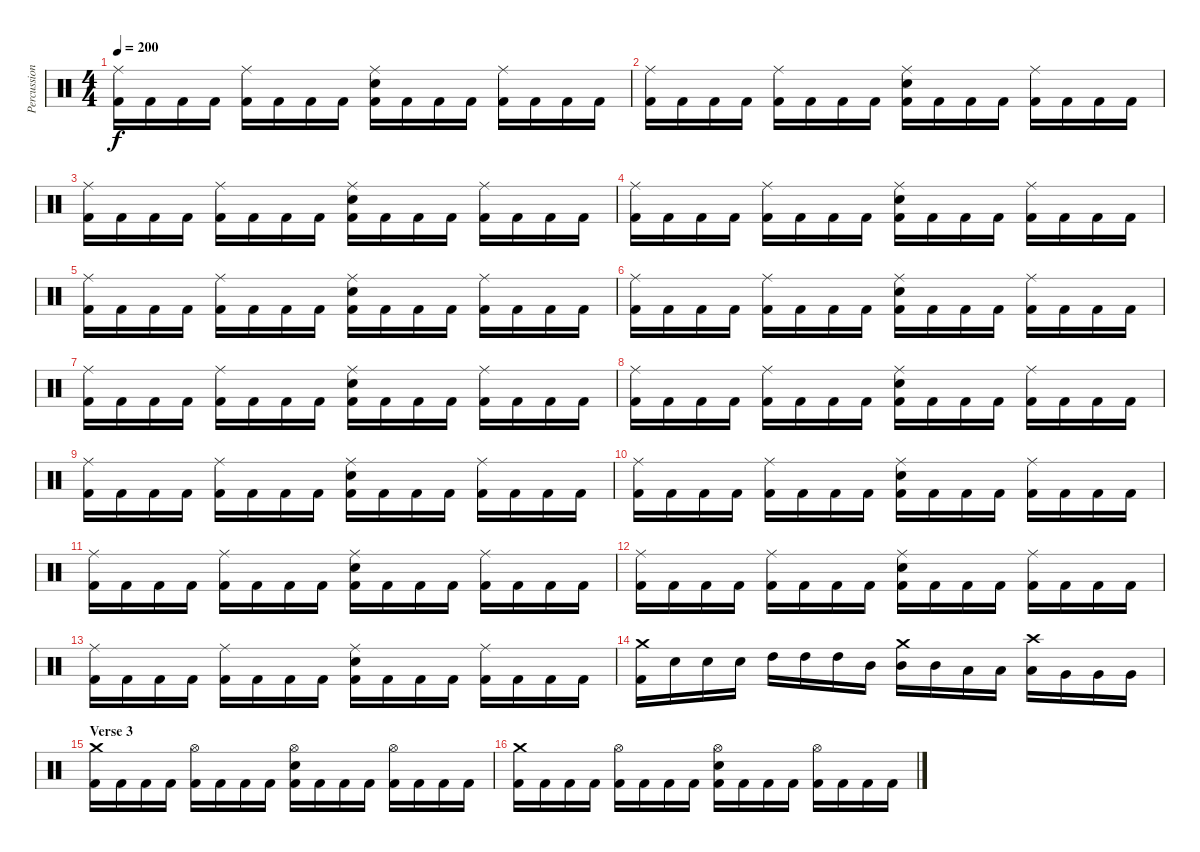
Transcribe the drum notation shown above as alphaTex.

\track ("Percussions" "Percussion") {instrument percussion}
\staff {score}
\articulation defaults
\ts (4 4)
\tempo 200
\clef neutral
\ks c
("Ride (middle)" "Kick (hit) 2").16{dy f} "Kick (hit) 2".16 "Kick (hit) 2".16 "Kick (hit) 2".16 ("Ride (middle)" "Kick (hit) 2").16 "Kick (hit) 2".16 "Kick (hit) 2".16 "Kick (hit) 2".16 ("Ride (middle)" "Electric Snare (hit)" "Kick (hit) 2").16 "Kick (hit) 2".16 "Kick (hit) 2".16 "Kick (hit) 2".16 ("Ride (middle)" "Kick (hit) 2").16 "Kick (hit) 2".16 "Kick (hit) 2".16 "Kick (hit) 2".16 |
("Ride (middle)" "Kick (hit) 2").16 "Kick (hit) 2".16 "Kick (hit) 2".16 "Kick (hit) 2".16 ("Ride (middle)" "Kick (hit) 2").16 "Kick (hit) 2".16 "Kick (hit) 2".16 "Kick (hit) 2".16 ("Ride (middle)" "Electric Snare (hit)" "Kick (hit) 2").16 "Kick (hit) 2".16 "Kick (hit) 2".16 "Kick (hit) 2".16 ("Ride (middle)" "Kick (hit) 2").16 "Kick (hit) 2".16 "Kick (hit) 2".16 "Kick (hit) 2".16 |
("Ride (middle)" "Kick (hit) 2").16 "Kick (hit) 2".16 "Kick (hit) 2".16 "Kick (hit) 2".16 ("Ride (middle)" "Kick (hit) 2").16 "Kick (hit) 2".16 "Kick (hit) 2".16 "Kick (hit) 2".16 ("Ride (middle)" "Electric Snare (hit)" "Kick (hit) 2").16 "Kick (hit) 2".16 "Kick (hit) 2".16 "Kick (hit) 2".16 ("Ride (middle)" "Kick (hit) 2").16 "Kick (hit) 2".16 "Kick (hit) 2".16 "Kick (hit) 2".16 |
("Ride (middle)" "Kick (hit) 2").16 "Kick (hit) 2".16 "Kick (hit) 2".16 "Kick (hit) 2".16 ("Ride (middle)" "Kick (hit) 2").16 "Kick (hit) 2".16 "Kick (hit) 2".16 "Kick (hit) 2".16 ("Ride (middle)" "Electric Snare (hit)" "Kick (hit) 2").16 "Kick (hit) 2".16 "Kick (hit) 2".16 "Kick (hit) 2".16 ("Ride (middle)" "Kick (hit) 2").16 "Kick (hit) 2".16 "Kick (hit) 2".16 "Kick (hit) 2".16 |
("Ride (middle)" "Kick (hit) 2").16 "Kick (hit) 2".16 "Kick (hit) 2".16 "Kick (hit) 2".16 ("Ride (middle)" "Kick (hit) 2").16 "Kick (hit) 2".16 "Kick (hit) 2".16 "Kick (hit) 2".16 ("Ride (middle)" "Electric Snare (hit)" "Kick (hit) 2").16 "Kick (hit) 2".16 "Kick (hit) 2".16 "Kick (hit) 2".16 ("Ride (middle)" "Kick (hit) 2").16 "Kick (hit) 2".16 "Kick (hit) 2".16 "Kick (hit) 2".16 |
("Ride (middle)" "Kick (hit) 2").16 "Kick (hit) 2".16 "Kick (hit) 2".16 "Kick (hit) 2".16 ("Ride (middle)" "Kick (hit) 2").16 "Kick (hit) 2".16 "Kick (hit) 2".16 "Kick (hit) 2".16 ("Ride (middle)" "Electric Snare (hit)" "Kick (hit) 2").16 "Kick (hit) 2".16 "Kick (hit) 2".16 "Kick (hit) 2".16 ("Ride (middle)" "Kick (hit) 2").16 "Kick (hit) 2".16 "Kick (hit) 2".16 "Kick (hit) 2".16 |
("Ride (middle)" "Kick (hit) 2").16 "Kick (hit) 2".16 "Kick (hit) 2".16 "Kick (hit) 2".16 ("Ride (middle)" "Kick (hit) 2").16 "Kick (hit) 2".16 "Kick (hit) 2".16 "Kick (hit) 2".16 ("Ride (middle)" "Electric Snare (hit)" "Kick (hit) 2").16 "Kick (hit) 2".16 "Kick (hit) 2".16 "Kick (hit) 2".16 ("Ride (middle)" "Kick (hit) 2").16 "Kick (hit) 2".16 "Kick (hit) 2".16 "Kick (hit) 2".16 |
("Ride (middle)" "Kick (hit) 2").16 "Kick (hit) 2".16 "Kick (hit) 2".16 "Kick (hit) 2".16 ("Ride (middle)" "Kick (hit) 2").16 "Kick (hit) 2".16 "Kick (hit) 2".16 "Kick (hit) 2".16 ("Ride (middle)" "Electric Snare (hit)" "Kick (hit) 2").16 "Kick (hit) 2".16 "Kick (hit) 2".16 "Kick (hit) 2".16 ("Ride (middle)" "Kick (hit) 2").16 "Kick (hit) 2".16 "Kick (hit) 2".16 "Kick (hit) 2".16 |
("Ride (middle)" "Kick (hit) 2").16 "Kick (hit) 2".16 "Kick (hit) 2".16 "Kick (hit) 2".16 ("Ride (middle)" "Kick (hit) 2").16 "Kick (hit) 2".16 "Kick (hit) 2".16 "Kick (hit) 2".16 ("Ride (middle)" "Electric Snare (hit)" "Kick (hit) 2").16 "Kick (hit) 2".16 "Kick (hit) 2".16 "Kick (hit) 2".16 ("Ride (middle)" "Kick (hit) 2").16 "Kick (hit) 2".16 "Kick (hit) 2".16 "Kick (hit) 2".16 |
("Ride (middle)" "Kick (hit) 2").16 "Kick (hit) 2".16 "Kick (hit) 2".16 "Kick (hit) 2".16 ("Ride (middle)" "Kick (hit) 2").16 "Kick (hit) 2".16 "Kick (hit) 2".16 "Kick (hit) 2".16 ("Ride (middle)" "Electric Snare (hit)" "Kick (hit) 2").16 "Kick (hit) 2".16 "Kick (hit) 2".16 "Kick (hit) 2".16 ("Ride (middle)" "Kick (hit) 2").16 "Kick (hit) 2".16 "Kick (hit) 2".16 "Kick (hit) 2".16 |
("Ride (middle)" "Kick (hit) 2").16 "Kick (hit) 2".16 "Kick (hit) 2".16 "Kick (hit) 2".16 ("Ride (middle)" "Kick (hit) 2").16 "Kick (hit) 2".16 "Kick (hit) 2".16 "Kick (hit) 2".16 ("Ride (middle)" "Electric Snare (hit)" "Kick (hit) 2").16 "Kick (hit) 2".16 "Kick (hit) 2".16 "Kick (hit) 2".16 ("Ride (middle)" "Kick (hit) 2").16 "Kick (hit) 2".16 "Kick (hit) 2".16 "Kick (hit) 2".16 |
("Ride (middle)" "Kick (hit) 2").16 "Kick (hit) 2".16 "Kick (hit) 2".16 "Kick (hit) 2".16 ("Ride (middle)" "Kick (hit) 2").16 "Kick (hit) 2".16 "Kick (hit) 2".16 "Kick (hit) 2".16 ("Ride (middle)" "Electric Snare (hit)" "Kick (hit) 2").16 "Kick (hit) 2".16 "Kick (hit) 2".16 "Kick (hit) 2".16 ("Ride (middle)" "Kick (hit) 2").16 "Kick (hit) 2".16 "Kick (hit) 2".16 "Kick (hit) 2".16 |
("Ride (middle)" "Kick (hit) 2").16 "Kick (hit) 2".16 "Kick (hit) 2".16 "Kick (hit) 2".16 ("Ride (middle)" "Kick (hit) 2").16 "Kick (hit) 2".16 "Kick (hit) 2".16 "Kick (hit) 2".16 ("Ride (middle)" "Electric Snare (hit)" "Kick (hit) 2").16 "Kick (hit) 2".16 "Kick (hit) 2".16 "Kick (hit) 2".16 ("Ride (middle)" "Kick (hit) 2").16 "Kick (hit) 2".16 "Kick (hit) 2".16 "Kick (hit) 2".16 |
("Crash medium (hit)" "Kick (hit) 2").16 "Electric Snare (hit)".16 "Electric Snare (hit)".16 "Electric Snare (hit)".16 "High Tom (hit)".16 "High Tom (hit)".16 "High Tom (hit)".16 "Mid Tom (hit)".16 ("Crash medium (hit)" "Mid Tom (hit)").16 "Mid Tom (hit)".16 "Low Tom (hit)".16 "Low Tom (hit)".16 ("Crash high (hit)" "Low Tom (hit)").16 "Very Low Tom (hit)".16 "Very Low Tom (hit)".16 "Very Low Tom (hit)".16 |
\section ("" "Verse 3")
("Crash medium (hit)" "Kick (hit) 2").16 "Kick (hit) 2".16 "Kick (hit) 2".16 "Kick (hit) 2".16 ("Hi-Hat (open)" "Kick (hit) 2").16 "Kick (hit) 2".16 "Kick (hit) 2".16 "Kick (hit) 2".16 ("Hi-Hat (open)" "Electric Snare (hit)" "Kick (hit) 2").16 "Kick (hit) 2".16 "Kick (hit) 2".16 "Kick (hit) 2".16 ("Hi-Hat (open)" "Kick (hit) 2").16 "Kick (hit) 2".16 "Kick (hit) 2".16 "Kick (hit) 2".16 |
("Crash medium (hit)" "Kick (hit) 2").16 "Kick (hit) 2".16 "Kick (hit) 2".16 "Kick (hit) 2".16 ("Hi-Hat (open)" "Kick (hit) 2").16 "Kick (hit) 2".16 "Kick (hit) 2".16 "Kick (hit) 2".16 ("Hi-Hat (open)" "Electric Snare (hit)" "Kick (hit) 2").16 "Kick (hit) 2".16 "Kick (hit) 2".16 "Kick (hit) 2".16 ("Hi-Hat (open)" "Kick (hit) 2").16 "Kick (hit) 2".16 "Kick (hit) 2".16 "Kick (hit) 2".16
